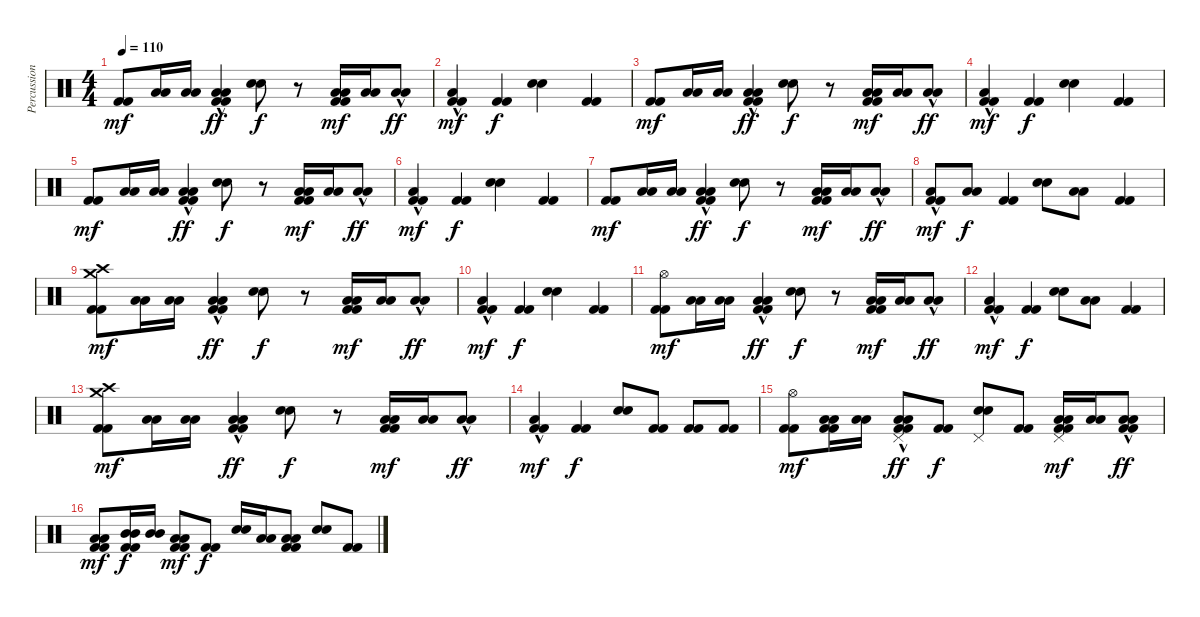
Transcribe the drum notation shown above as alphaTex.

\track ("Percussion" "Percussion") {instrument percussion}
\staff {score}
\articulation defaults
\ts (4 4)
\tempo 110
\clef neutral
\ks c
("Kick (hit) 2" "Kick (hit) 2").8{dy mf} ("Low Floor Tom (hit)" "Low Floor Tom (hit)").16 ("Low Floor Tom (hit)" "Low Floor Tom (hit)").16 ("Low Floor Tom (hit)"{hac} "Low Floor Tom (hit)"{hac} "Kick (hit) 2" "Kick (hit) 2").4{dy ff} ("Electric Snare (hit)" "Electric Snare (hit)").8{bu 240 dy f} r.8 ("Low Floor Tom (hit)" "Low Floor Tom (hit)" "Kick (hit) 2" "Kick (hit) 2").16{dy mf} ("Low Floor Tom (hit)" "Low Floor Tom (hit)").16 ("Low Floor Tom (hit)"{hac} "Low Floor Tom (hit)"{hac}).8{dy ff} |
("Low Floor Tom (hit)"{hac} "Kick (hit) 2" "Kick (hit) 2").4{dy mf} ("Kick (hit) 2" "Kick (hit) 2").4{dy f} ("Electric Snare (hit)" "Electric Snare (hit)").4{bu 240} ("Kick (hit) 2" "Kick (hit) 2").4 |
("Kick (hit) 2" "Kick (hit) 2").8{dy mf} ("Low Floor Tom (hit)" "Low Floor Tom (hit)").16 ("Low Floor Tom (hit)" "Low Floor Tom (hit)").16 ("Low Floor Tom (hit)"{hac} "Low Floor Tom (hit)"{hac} "Kick (hit) 2" "Kick (hit) 2").4{dy ff} ("Electric Snare (hit)" "Electric Snare (hit)").8{bu 240 dy f} r.8 ("Low Floor Tom (hit)" "Low Floor Tom (hit)" "Kick (hit) 2" "Kick (hit) 2").16{dy mf} ("Low Floor Tom (hit)" "Low Floor Tom (hit)").16 ("Low Floor Tom (hit)"{hac} "Low Floor Tom (hit)"{hac}).8{dy ff} |
("Low Floor Tom (hit)"{hac} "Kick (hit) 2" "Kick (hit) 2").4{dy mf} ("Kick (hit) 2" "Kick (hit) 2").4{dy f} ("Electric Snare (hit)" "Electric Snare (hit)").4{bu 240} ("Kick (hit) 2" "Kick (hit) 2").4 |
("Kick (hit) 2" "Kick (hit) 2").8{dy mf} ("Low Floor Tom (hit)" "Low Floor Tom (hit)").16 ("Low Floor Tom (hit)" "Low Floor Tom (hit)").16 ("Low Floor Tom (hit)"{hac} "Low Floor Tom (hit)"{hac} "Kick (hit) 2" "Kick (hit) 2").4{dy ff} ("Electric Snare (hit)" "Electric Snare (hit)").8{bu 240 dy f} r.8 ("Low Floor Tom (hit)" "Low Floor Tom (hit)" "Kick (hit) 2" "Kick (hit) 2").16{dy mf} ("Low Floor Tom (hit)" "Low Floor Tom (hit)").16 ("Low Floor Tom (hit)"{hac} "Low Floor Tom (hit)"{hac}).8{dy ff} |
("Low Floor Tom (hit)"{hac} "Kick (hit) 2" "Kick (hit) 2").4{dy mf} ("Kick (hit) 2" "Kick (hit) 2").4{dy f} ("Electric Snare (hit)" "Electric Snare (hit)").4{bu 240} ("Kick (hit) 2" "Kick (hit) 2").4 |
("Kick (hit) 2" "Kick (hit) 2").8{dy mf} ("Low Floor Tom (hit)" "Low Floor Tom (hit)").16 ("Low Floor Tom (hit)" "Low Floor Tom (hit)").16 ("Low Floor Tom (hit)"{hac} "Low Floor Tom (hit)"{hac} "Kick (hit) 2" "Kick (hit) 2").4{dy ff} ("Electric Snare (hit)" "Electric Snare (hit)").8{bu 240 dy f} r.8 ("Low Floor Tom (hit)" "Low Floor Tom (hit)" "Kick (hit) 2" "Kick (hit) 2").16{dy mf} ("Low Floor Tom (hit)" "Low Floor Tom (hit)").16 ("Low Floor Tom (hit)"{hac} "Low Floor Tom (hit)"{hac}).8{dy ff} |
("Low Floor Tom (hit)"{hac} "Kick (hit) 2" "Kick (hit) 2").8{dy mf} ("Low Floor Tom (hit)" "Low Floor Tom (hit)").8{dy f} ("Kick (hit) 2" "Kick (hit) 2").4 ("Electric Snare (hit)" "Electric Snare (hit)").8{bu 240} ("Low Floor Tom (hit)" "Low Floor Tom (hit)").8 ("Kick (hit) 2" "Kick (hit) 2").4 |
("Crash high (hit)" "Crash medium (hit)" "Kick (hit) 2" "Kick (hit) 2").8{dy mf} ("Low Floor Tom (hit)" "Low Floor Tom (hit)").16 ("Low Floor Tom (hit)" "Low Floor Tom (hit)").16 ("Low Floor Tom (hit)"{hac} "Low Floor Tom (hit)"{hac} "Kick (hit) 2" "Kick (hit) 2").4{dy ff} ("Electric Snare (hit)" "Electric Snare (hit)").8{bu 240 dy f} r.8 ("Low Floor Tom (hit)" "Low Floor Tom (hit)" "Kick (hit) 2" "Kick (hit) 2").16{dy mf} ("Low Floor Tom (hit)" "Low Floor Tom (hit)").16 ("Low Floor Tom (hit)"{hac} "Low Floor Tom (hit)"{hac}).8{dy ff} |
("Low Floor Tom (hit)"{hac} "Kick (hit) 2" "Kick (hit) 2").4{dy mf} ("Kick (hit) 2" "Kick (hit) 2").4{dy f} ("Electric Snare (hit)" "Electric Snare (hit)").4{bu 240} ("Kick (hit) 2" "Kick (hit) 2").4 |
("Hi-Hat (open)" "Kick (hit) 2" "Kick (hit) 2").8{dy mf} ("Low Floor Tom (hit)" "Low Floor Tom (hit)").16 ("Low Floor Tom (hit)" "Low Floor Tom (hit)").16 ("Low Floor Tom (hit)"{hac} "Low Floor Tom (hit)"{hac} "Kick (hit) 2" "Kick (hit) 2").4{dy ff} ("Electric Snare (hit)" "Electric Snare (hit)").8{bu 240 dy f} r.8 ("Low Floor Tom (hit)" "Low Floor Tom (hit)" "Kick (hit) 2" "Kick (hit) 2").16{dy mf} ("Low Floor Tom (hit)" "Low Floor Tom (hit)").16 ("Low Floor Tom (hit)"{hac} "Low Floor Tom (hit)"{hac}).8{dy ff} |
("Low Floor Tom (hit)"{hac} "Kick (hit) 2" "Kick (hit) 2").4{dy mf} ("Kick (hit) 2" "Kick (hit) 2").4{dy f} ("Electric Snare (hit)" "Electric Snare (hit)").8{bu 240} ("Low Floor Tom (hit)" "Low Floor Tom (hit)").8 ("Kick (hit) 2" "Kick (hit) 2").4 |
("Crash high (hit)" "Crash medium (hit)" "Kick (hit) 2" "Kick (hit) 2").8{dy mf} ("Low Floor Tom (hit)" "Low Floor Tom (hit)").16 ("Low Floor Tom (hit)" "Low Floor Tom (hit)").16 ("Low Floor Tom (hit)"{hac} "Low Floor Tom (hit)"{hac} "Kick (hit) 2" "Kick (hit) 2").4{dy ff} ("Electric Snare (hit)" "Electric Snare (hit)").8{bu 240 dy f} r.8 ("Low Floor Tom (hit)" "Low Floor Tom (hit)" "Kick (hit) 2" "Kick (hit) 2").16{dy mf} ("Low Floor Tom (hit)" "Low Floor Tom (hit)").16 ("Low Floor Tom (hit)"{hac} "Low Floor Tom (hit)"{hac}).8{dy ff} |
("Low Floor Tom (hit)"{hac} "Kick (hit) 2" "Kick (hit) 2").4{dy mf} ("Kick (hit) 2" "Kick (hit) 2").4{dy f} ("Electric Snare (hit)" "Electric Snare (hit)").8{bu 240} ("Kick (hit) 2" "Kick (hit) 2").8 ("Kick (hit) 2" "Kick (hit) 2").8 ("Kick (hit) 2" "Kick (hit) 2").8 |
("Hi-Hat (open)" "Kick (hit) 2" "Kick (hit) 2").8{dy mf} ("Low Floor Tom (hit)" "Low Floor Tom (hit)" "Kick (hit) 2" "Kick (hit) 2").16 ("Low Floor Tom (hit)" "Low Floor Tom (hit)").16 ("Pedal Hi-Hat (hit)" "Low Floor Tom (hit)"{hac} "Low Floor Tom (hit)"{hac} "Kick (hit) 2" "Kick (hit) 2").8{dy ff} ("Kick (hit) 2" "Kick (hit) 2").8{dy f} ("Pedal Hi-Hat (hit)" "Electric Snare (hit)" "Electric Snare (hit)").8{bu 240} ("Kick (hit) 2" "Kick (hit) 2").8 ("Pedal Hi-Hat (hit)" "Low Floor Tom (hit)" "Low Floor Tom (hit)" "Kick (hit) 2" "Kick (hit) 2").16{dy mf} ("Low Floor Tom (hit)" "Low Floor Tom (hit)").16 ("Low Floor Tom (hit)"{hac} "Low Floor Tom (hit)"{hac} "Kick (hit) 2" "Kick (hit) 2").8{dy ff} |
("Low Tom (hit)" "Low Tom (hit)" "Kick (hit) 2" "Kick (hit) 2").8{dy mf} ("Mid Tom (hit)" "Mid Tom (hit)" "Kick (hit) 2" "Kick (hit) 2").16{dy f} ("Mid Tom (hit)" "Mid Tom (hit)").16 ("Low Tom (hit)" "Low Tom (hit)" "Kick (hit) 2" "Kick (hit) 2").8{dy mf} ("Kick (hit) 2" "Kick (hit) 2").8{dy f} ("Electric Snare (hit)" "Electric Snare (hit)").16 ("Low Floor Tom (hit)" "Low Floor Tom (hit)").16 ("Low Floor Tom (hit)" "Low Floor Tom (hit)" "Kick (hit) 2" "Kick (hit) 2").8 ("Electric Snare (hit)" "Electric Snare (hit)").8{bu 240} ("Kick (hit) 2" "Kick (hit) 2").8
